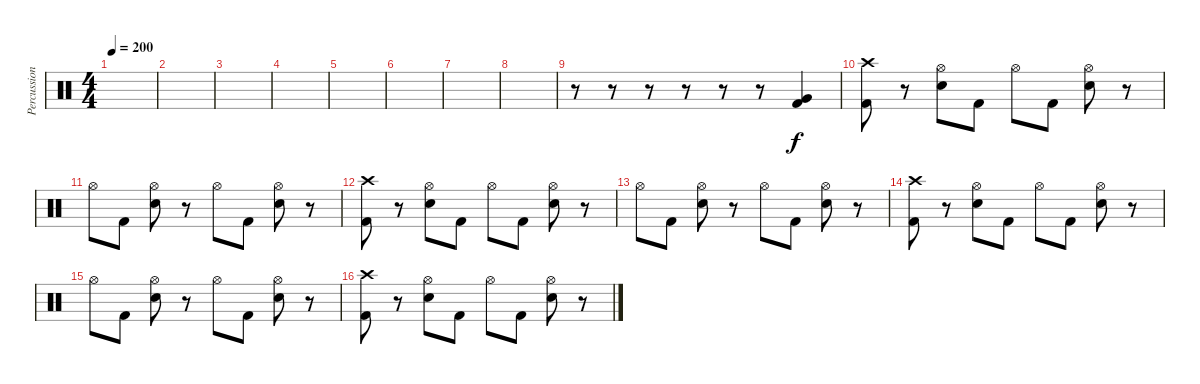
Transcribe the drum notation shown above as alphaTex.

\track ("Percussion" "Percussion") {instrument percussion}
\staff {score}
\articulation defaults
\ts (4 4)
\tempo 200
\clef neutral
\ks c
|
|
|
|
|
|
|
|
r.8 r.8 r.8 r.8 r.8 r.8 ("Very Low Tom (hit)" "Kick (hit) 2").4 |
("Crash high (hit)" "Kick (hit) 2").8 r.8 ("Hi-Hat (open)" "Electric Snare (hit)").8 "Kick (hit) 2".8 "Hi-Hat (open)".8 "Kick (hit) 2".8 ("Hi-Hat (open)" "Electric Snare (hit)").8 r.8 |
"Hi-Hat (open)".8 "Kick (hit) 2".8 ("Hi-Hat (open)" "Electric Snare (hit)").8 r.8 "Hi-Hat (open)".8 "Kick (hit) 2".8 ("Hi-Hat (open)" "Electric Snare (hit)").8 r.8 |
("Crash high (hit)" "Kick (hit) 2").8 r.8 ("Hi-Hat (open)" "Electric Snare (hit)").8 "Kick (hit) 2".8 "Hi-Hat (open)".8 "Kick (hit) 2".8 ("Hi-Hat (open)" "Electric Snare (hit)").8 r.8 |
"Hi-Hat (open)".8 "Kick (hit) 2".8 ("Hi-Hat (open)" "Electric Snare (hit)").8 r.8 "Hi-Hat (open)".8 "Kick (hit) 2".8 ("Hi-Hat (open)" "Electric Snare (hit)").8 r.8 |
("Crash high (hit)" "Kick (hit) 2").8 r.8 ("Hi-Hat (open)" "Electric Snare (hit)").8 "Kick (hit) 2".8 "Hi-Hat (open)".8 "Kick (hit) 2".8 ("Hi-Hat (open)" "Electric Snare (hit)").8 r.8 |
"Hi-Hat (open)".8 "Kick (hit) 2".8 ("Hi-Hat (open)" "Electric Snare (hit)").8 r.8 "Hi-Hat (open)".8 "Kick (hit) 2".8 ("Hi-Hat (open)" "Electric Snare (hit)").8 r.8 |
("Crash high (hit)" "Kick (hit) 2").8 r.8 ("Hi-Hat (open)" "Electric Snare (hit)").8 "Kick (hit) 2".8 "Hi-Hat (open)".8 "Kick (hit) 2".8 ("Hi-Hat (open)" "Electric Snare (hit)").8 r.8
